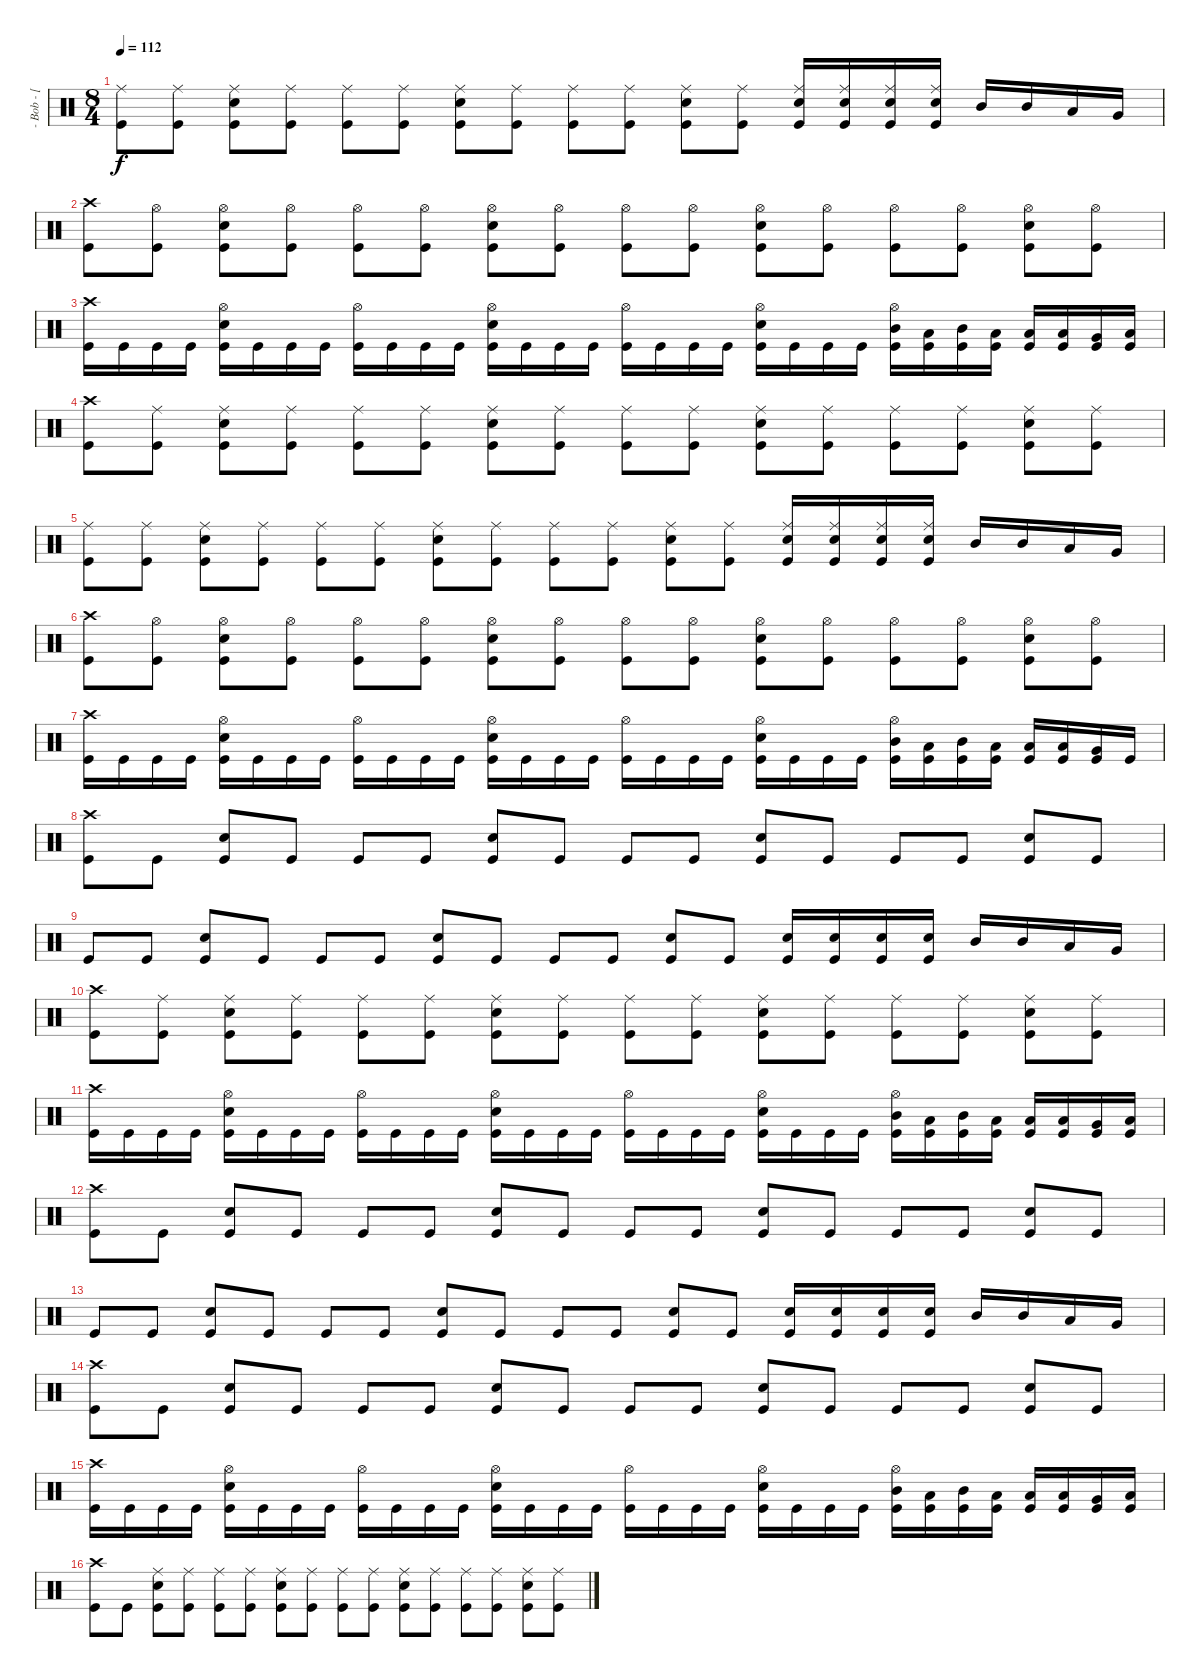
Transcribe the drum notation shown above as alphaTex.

\track ("- Bob - [ Drum ]" "- Bob - [ ") {instrument percussion}
\staff {score}
\articulation defaults
\ts (8 4)
\tempo 112
\clef neutral
\ks c
("Kick (hit)" "Ride (middle)").8{dy f} ("Kick (hit)" "Ride (middle)").8 ("Kick (hit)" "Snare (hit) 2" "Ride (middle)").8 ("Kick (hit)" "Ride (middle)").8 ("Kick (hit)" "Ride (middle)").8 ("Kick (hit)" "Ride (middle)").8 ("Kick (hit)" "Snare (hit) 2" "Ride (middle)").8 ("Kick (hit)" "Ride (middle)").8 ("Kick (hit)" "Ride (middle)").8 ("Kick (hit)" "Ride (middle)").8 ("Kick (hit)" "Snare (hit) 2" "Ride (middle)").8 ("Kick (hit)" "Ride (middle)").8 ("Kick (hit)" "Snare (hit) 2" "Ride (middle)").16 ("Kick (hit)" "Snare (hit) 2" "Ride (middle)").16 ("Kick (hit)" "Snare (hit) 2" "Ride (middle)").16 ("Kick (hit)" "Snare (hit) 2" "Ride (middle)").16 "Mid Tom (hit)".16 "Mid Tom (hit)".16 "Low Tom (hit)".16 "Very Low Tom (hit)".16 |
("Kick (hit)" "Crash high (hit)").8 ("Kick (hit)" "Hi-Hat (open)").8 ("Kick (hit)" "Snare (hit) 2" "Hi-Hat (open)").8 ("Kick (hit)" "Hi-Hat (open)").8 ("Kick (hit)" "Hi-Hat (open)").8 ("Kick (hit)" "Hi-Hat (open)").8 ("Kick (hit)" "Snare (hit) 2" "Hi-Hat (open)").8 ("Kick (hit)" "Hi-Hat (open)").8 ("Kick (hit)" "Hi-Hat (open)").8 ("Kick (hit)" "Hi-Hat (open)").8 ("Kick (hit)" "Snare (hit) 2" "Hi-Hat (open)").8 ("Kick (hit)" "Hi-Hat (open)").8 ("Kick (hit)" "Hi-Hat (open)").8 ("Kick (hit)" "Hi-Hat (open)").8 ("Kick (hit)" "Snare (hit) 2" "Hi-Hat (open)").8 ("Kick (hit)" "Hi-Hat (open)").8 |
("Kick (hit)" "Crash high (hit)").16 "Kick (hit)".16 "Kick (hit)".16 "Kick (hit)".16 ("Kick (hit)" "Snare (hit) 2" "Hi-Hat (open)").16 "Kick (hit)".16 "Kick (hit)".16 "Kick (hit)".16 ("Kick (hit)" "Hi-Hat (open)").16 "Kick (hit)".16 "Kick (hit)".16 "Kick (hit)".16 ("Kick (hit)" "Snare (hit) 2" "Hi-Hat (open)").16 "Kick (hit)".16 "Kick (hit)".16 "Kick (hit)".16 ("Kick (hit)" "Hi-Hat (open)").16 "Kick (hit)".16 "Kick (hit)".16 "Kick (hit)".16 ("Kick (hit)" "Snare (hit) 2" "Hi-Hat (open)").16 "Kick (hit)".16 "Kick (hit)".16 "Kick (hit)".16 ("Kick (hit)" "Mid Tom (hit)" "Hi-Hat (open)").16 ("Kick (hit)" "Low Tom (hit)").16 ("Kick (hit)" "Mid Tom (hit)").16 ("Kick (hit)" "Low Tom (hit)").16 ("Kick (hit)" "Low Tom (hit)").16 ("Kick (hit)" "Low Tom (hit)").16 ("Kick (hit)" "Very Low Tom (hit)").16 ("Kick (hit)" "Low Floor Tom (hit)").16 |
("Kick (hit)" "Crash high (hit)").8 ("Kick (hit)" "Ride (middle)").8 ("Kick (hit)" "Snare (hit) 2" "Ride (middle)").8 ("Kick (hit)" "Ride (middle)").8 ("Kick (hit)" "Ride (middle)").8 ("Kick (hit)" "Ride (middle)").8 ("Kick (hit)" "Snare (hit) 2" "Ride (middle)").8 ("Kick (hit)" "Ride (middle)").8 ("Kick (hit)" "Ride (middle)").8 ("Kick (hit)" "Ride (middle)").8 ("Kick (hit)" "Snare (hit) 2" "Ride (middle)").8 ("Kick (hit)" "Ride (middle)").8 ("Kick (hit)" "Ride (middle)").8 ("Kick (hit)" "Ride (middle)").8 ("Kick (hit)" "Snare (hit) 2" "Ride (middle)").8 ("Kick (hit)" "Ride (middle)").8 |
("Kick (hit)" "Ride (middle)").8 ("Kick (hit)" "Ride (middle)").8 ("Kick (hit)" "Snare (hit) 2" "Ride (middle)").8 ("Kick (hit)" "Ride (middle)").8 ("Kick (hit)" "Ride (middle)").8 ("Kick (hit)" "Ride (middle)").8 ("Kick (hit)" "Snare (hit) 2" "Ride (middle)").8 ("Kick (hit)" "Ride (middle)").8 ("Kick (hit)" "Ride (middle)").8 ("Kick (hit)" "Ride (middle)").8 ("Kick (hit)" "Snare (hit) 2" "Ride (middle)").8 ("Kick (hit)" "Ride (middle)").8 ("Kick (hit)" "Snare (hit) 2" "Ride (middle)").16 ("Kick (hit)" "Snare (hit) 2" "Ride (middle)").16 ("Kick (hit)" "Snare (hit) 2" "Ride (middle)").16 ("Kick (hit)" "Snare (hit) 2" "Ride (middle)").16 "Mid Tom (hit)".16 "Mid Tom (hit)".16 "Low Tom (hit)".16 "Very Low Tom (hit)".16 |
("Kick (hit)" "Crash high (hit)").8 ("Kick (hit)" "Hi-Hat (open)").8 ("Kick (hit)" "Snare (hit) 2" "Hi-Hat (open)").8 ("Kick (hit)" "Hi-Hat (open)").8 ("Kick (hit)" "Hi-Hat (open)").8 ("Kick (hit)" "Hi-Hat (open)").8 ("Kick (hit)" "Snare (hit) 2" "Hi-Hat (open)").8 ("Kick (hit)" "Hi-Hat (open)").8 ("Kick (hit)" "Hi-Hat (open)").8 ("Kick (hit)" "Hi-Hat (open)").8 ("Kick (hit)" "Snare (hit) 2" "Hi-Hat (open)").8 ("Kick (hit)" "Hi-Hat (open)").8 ("Kick (hit)" "Hi-Hat (open)").8 ("Kick (hit)" "Hi-Hat (open)").8 ("Kick (hit)" "Snare (hit) 2" "Hi-Hat (open)").8 ("Kick (hit)" "Hi-Hat (open)").8 |
("Kick (hit)" "Crash high (hit)").16 "Kick (hit)".16 "Kick (hit)".16 "Kick (hit)".16 ("Kick (hit)" "Snare (hit) 2" "Hi-Hat (open)").16 "Kick (hit)".16 "Kick (hit)".16 "Kick (hit)".16 ("Kick (hit)" "Hi-Hat (open)").16 "Kick (hit)".16 "Kick (hit)".16 "Kick (hit)".16 ("Kick (hit)" "Snare (hit) 2" "Hi-Hat (open)").16 "Kick (hit)".16 "Kick (hit)".16 "Kick (hit)".16 ("Kick (hit)" "Hi-Hat (open)").16 "Kick (hit)".16 "Kick (hit)".16 "Kick (hit)".16 ("Kick (hit)" "Snare (hit) 2" "Hi-Hat (open)").16 "Kick (hit)".16 "Kick (hit)".16 "Kick (hit)".16 ("Kick (hit)" "Mid Tom (hit)" "Hi-Hat (open)").16 ("Kick (hit)" "Low Tom (hit)").16 ("Kick (hit)" "Mid Tom (hit)").16 ("Kick (hit)" "Low Tom (hit)").16 ("Kick (hit)" "Low Tom (hit)").16 ("Kick (hit)" "Low Tom (hit)").16 ("Kick (hit)" "Very Low Tom (hit)").16 "Kick (hit)".16 |
("Kick (hit)" "Crash high (hit)").8 "Kick (hit)".8 ("Kick (hit)" "Snare (hit) 2").8 "Kick (hit)".8 "Kick (hit)".8 "Kick (hit)".8 ("Kick (hit)" "Snare (hit) 2").8 "Kick (hit)".8 "Kick (hit)".8 "Kick (hit)".8 ("Kick (hit)" "Snare (hit) 2").8 "Kick (hit)".8 "Kick (hit)".8 "Kick (hit)".8 ("Kick (hit)" "Snare (hit) 2").8 "Kick (hit)".8 |
"Kick (hit)".8 "Kick (hit)".8 ("Kick (hit)" "Snare (hit) 2").8 "Kick (hit)".8 "Kick (hit)".8 "Kick (hit)".8 ("Kick (hit)" "Snare (hit) 2").8 "Kick (hit)".8 "Kick (hit)".8 "Kick (hit)".8 ("Kick (hit)" "Snare (hit) 2").8 "Kick (hit)".8 ("Kick (hit)" "Snare (hit) 2").16 ("Kick (hit)" "Snare (hit) 2").16 ("Kick (hit)" "Snare (hit) 2").16 ("Kick (hit)" "Snare (hit) 2").16 "Mid Tom (hit)".16 "Mid Tom (hit)".16 "Low Tom (hit)".16 "Very Low Tom (hit)".16 |
("Kick (hit)" "Crash high (hit)").8 ("Kick (hit)" "Ride (middle)").8 ("Kick (hit)" "Snare (hit) 2" "Ride (middle)").8 ("Kick (hit)" "Ride (middle)").8 ("Kick (hit)" "Ride (middle)").8 ("Kick (hit)" "Ride (middle)").8 ("Kick (hit)" "Snare (hit) 2" "Ride (middle)").8 ("Kick (hit)" "Ride (middle)").8 ("Kick (hit)" "Ride (middle)").8 ("Kick (hit)" "Ride (middle)").8 ("Kick (hit)" "Snare (hit) 2" "Ride (middle)").8 ("Kick (hit)" "Ride (middle)").8 ("Kick (hit)" "Ride (middle)").8 ("Kick (hit)" "Ride (middle)").8 ("Kick (hit)" "Snare (hit) 2" "Ride (middle)").8 ("Kick (hit)" "Ride (middle)").8 |
("Kick (hit)" "Crash high (hit)").16 "Kick (hit)".16 "Kick (hit)".16 "Kick (hit)".16 ("Kick (hit)" "Snare (hit) 2" "Hi-Hat (open)").16 "Kick (hit)".16 "Kick (hit)".16 "Kick (hit)".16 ("Kick (hit)" "Hi-Hat (open)").16 "Kick (hit)".16 "Kick (hit)".16 "Kick (hit)".16 ("Kick (hit)" "Snare (hit) 2" "Hi-Hat (open)").16 "Kick (hit)".16 "Kick (hit)".16 "Kick (hit)".16 ("Kick (hit)" "Hi-Hat (open)").16 "Kick (hit)".16 "Kick (hit)".16 "Kick (hit)".16 ("Kick (hit)" "Snare (hit) 2" "Hi-Hat (open)").16 "Kick (hit)".16 "Kick (hit)".16 "Kick (hit)".16 ("Kick (hit)" "Mid Tom (hit)" "Hi-Hat (open)").16 ("Kick (hit)" "Low Tom (hit)").16 ("Kick (hit)" "Mid Tom (hit)").16 ("Kick (hit)" "Low Tom (hit)").16 ("Kick (hit)" "Low Tom (hit)").16 ("Kick (hit)" "Low Tom (hit)").16 ("Kick (hit)" "Very Low Tom (hit)").16 ("Kick (hit)" "Low Floor Tom (hit)").16 |
("Kick (hit)" "Crash high (hit)").8 "Kick (hit)".8 ("Kick (hit)" "Snare (hit) 2").8 "Kick (hit)".8 "Kick (hit)".8 "Kick (hit)".8 ("Kick (hit)" "Snare (hit) 2").8 "Kick (hit)".8 "Kick (hit)".8 "Kick (hit)".8 ("Kick (hit)" "Snare (hit) 2").8 "Kick (hit)".8 "Kick (hit)".8 "Kick (hit)".8 ("Kick (hit)" "Snare (hit) 2").8 "Kick (hit)".8 |
"Kick (hit)".8 "Kick (hit)".8 ("Kick (hit)" "Snare (hit) 2").8 "Kick (hit)".8 "Kick (hit)".8 "Kick (hit)".8 ("Kick (hit)" "Snare (hit) 2").8 "Kick (hit)".8 "Kick (hit)".8 "Kick (hit)".8 ("Kick (hit)" "Snare (hit) 2").8 "Kick (hit)".8 ("Kick (hit)" "Snare (hit) 2").16 ("Kick (hit)" "Snare (hit) 2").16 ("Kick (hit)" "Snare (hit) 2").16 ("Kick (hit)" "Snare (hit) 2").16 "Mid Tom (hit)".16 "Mid Tom (hit)".16 "Low Tom (hit)".16 "Very Low Tom (hit)".16 |
("Kick (hit)" "Crash high (hit)").8 "Kick (hit)".8 ("Kick (hit)" "Snare (hit) 2").8 "Kick (hit)".8 "Kick (hit)".8 "Kick (hit)".8 ("Kick (hit)" "Snare (hit) 2").8 "Kick (hit)".8 "Kick (hit)".8 "Kick (hit)".8 ("Kick (hit)" "Snare (hit) 2").8 "Kick (hit)".8 "Kick (hit)".8 "Kick (hit)".8 ("Kick (hit)" "Snare (hit) 2").8 "Kick (hit)".8 |
("Kick (hit)" "Crash high (hit)").16 "Kick (hit)".16 "Kick (hit)".16 "Kick (hit)".16 ("Kick (hit)" "Snare (hit) 2" "Hi-Hat (open)").16 "Kick (hit)".16 "Kick (hit)".16 "Kick (hit)".16 ("Kick (hit)" "Hi-Hat (open)").16 "Kick (hit)".16 "Kick (hit)".16 "Kick (hit)".16 ("Kick (hit)" "Snare (hit) 2" "Hi-Hat (open)").16 "Kick (hit)".16 "Kick (hit)".16 "Kick (hit)".16 ("Kick (hit)" "Hi-Hat (open)").16 "Kick (hit)".16 "Kick (hit)".16 "Kick (hit)".16 ("Kick (hit)" "Snare (hit) 2" "Hi-Hat (open)").16 "Kick (hit)".16 "Kick (hit)".16 "Kick (hit)".16 ("Kick (hit)" "Mid Tom (hit)" "Hi-Hat (open)").16 ("Kick (hit)" "Low Tom (hit)").16 ("Kick (hit)" "Mid Tom (hit)").16 ("Kick (hit)" "Low Tom (hit)").16 ("Kick (hit)" "Low Tom (hit)").16 ("Kick (hit)" "Low Tom (hit)").16 ("Kick (hit)" "Very Low Tom (hit)").16 ("Kick (hit)" "Low Floor Tom (hit)").16 |
("Kick (hit)" "Crash high (hit)").8 "Kick (hit)".8 ("Kick (hit)" "Snare (hit) 2" "Ride (middle)").8 ("Kick (hit)" "Ride (middle)").8 ("Kick (hit)" "Ride (middle)").8 ("Kick (hit)" "Ride (middle)").8 ("Kick (hit)" "Snare (hit) 2" "Ride (middle)").8 ("Kick (hit)" "Ride (middle)").8 ("Kick (hit)" "Ride (middle)").8 ("Kick (hit)" "Ride (middle)").8 ("Kick (hit)" "Snare (hit) 2" "Ride (middle)").8 ("Kick (hit)" "Ride (middle)").8 ("Kick (hit)" "Ride (middle)").8 ("Kick (hit)" "Ride (middle)").8 ("Kick (hit)" "Snare (hit) 2" "Ride (middle)").8 ("Kick (hit)" "Ride (middle)").8
